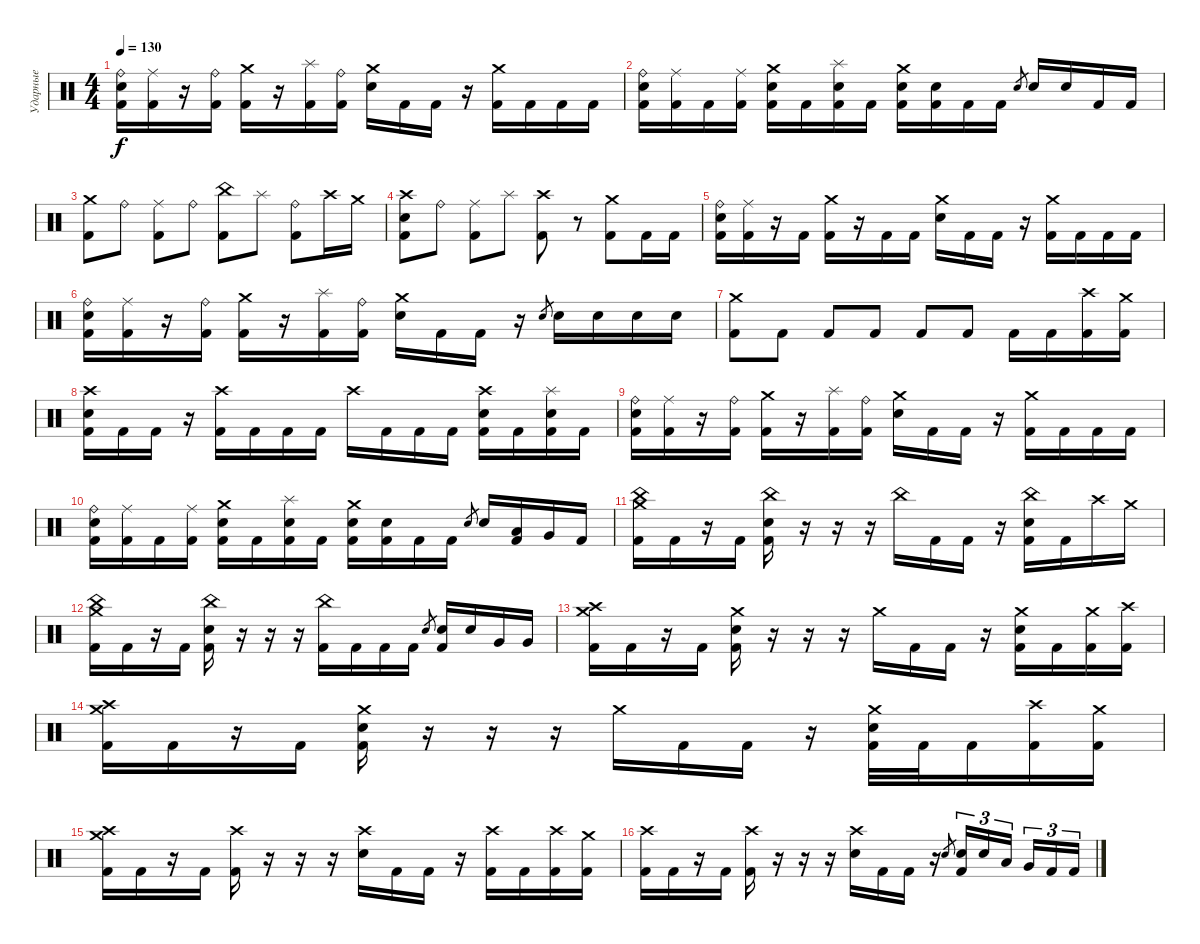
\track ("Ударные" "Ударные") {instrument percussion}
\staff {score}
\articulation defaults
\ts (4 4)
\tempo 130
\clef neutral
\ks c
("Ride (bell)" "Electric Snare (hit)" "Kick (hit) 2").16{dy f} ("Ride (middle)" "Kick (hit) 2").16 r.16 ("Ride (bell)" "Kick (hit) 2").16 ("Crash medium (hit)" "Kick (hit) 2").16 r.16 ("Splash (hit)" "Kick (hit) 2").16 ("Ride (bell)" "Kick (hit) 2").16 ("Crash medium (hit)" "Electric Snare (hit)").16 "Kick (hit) 2".16 "Kick (hit) 2".16 r.16 ("Crash medium (hit)" "Kick (hit) 2").16 "Kick (hit) 2".16 "Kick (hit) 2".16 "Kick (hit) 2".16 |
("Ride (bell)" "Electric Snare (hit)" "Kick (hit) 2").16 ("Ride (middle)" "Kick (hit) 2").16 "Kick (hit) 2".16 ("Ride (middle)" "Kick (hit) 2").16 ("Crash medium (hit)" "Electric Snare (hit)" "Kick (hit) 2").16 "Kick (hit) 2".16 ("Splash (hit)" "Electric Snare (hit)" "Kick (hit) 2").16 "Kick (hit) 2".16 ("Crash medium (hit)" "Electric Snare (hit)" "Kick (hit) 2").16 ("Electric Snare (hit)" "Kick (hit) 2").16 "Kick (hit) 2".16 "Kick (hit) 2".16 "Electric Snare (hit)".8{gr} "Electric Snare (hit)".16 "Electric Snare (hit)".16 "Kick (hit) 2".16 "Kick (hit) 2".16 |
("Crash medium (hit)" "Kick (hit) 2").8 "Ride (bell)".8 ("Ride (middle)" "Kick (hit) 2").8 "Ride (bell)".8 ("China (hit)" "Kick (hit) 2").8 "Splash (hit)".8 ("Ride (bell)" "Kick (hit) 2").8 "Crash high (hit)".16 "Crash medium (hit)".16 |
("Crash high (hit)" "Electric Snare (hit)" "Kick (hit) 2").8 "Ride (bell)".8 ("Ride (middle)" "Kick (hit) 2").8 "Splash (hit)".8 ("Crash high (hit)" "Kick (hit) 2").8 r.8 ("Crash medium (hit)" "Kick (hit) 2").8 "Kick (hit) 2".16 "Kick (hit) 2".16 |
("Ride (bell)" "Electric Snare (hit)" "Kick (hit) 2").16 ("Ride (middle)" "Kick (hit) 2").16 r.16 "Kick (hit) 2".16 ("Crash medium (hit)" "Kick (hit) 2").16 r.16 "Kick (hit) 2".16 "Kick (hit) 2".16 ("Crash medium (hit)" "Electric Snare (hit)").16 "Kick (hit) 2".16 "Kick (hit) 2".16 r.16 ("Crash medium (hit)" "Kick (hit) 2").16 "Kick (hit) 2".16 "Kick (hit) 2".16 "Kick (hit) 2".16 |
("Ride (bell)" "Electric Snare (hit)" "Kick (hit) 2").16 ("Ride (middle)" "Kick (hit) 2").16 r.16 ("Ride (bell)" "Kick (hit) 2").16 ("Crash medium (hit)" "Kick (hit) 2").16 r.16 ("Splash (hit)" "Kick (hit) 2").16 ("Ride (bell)" "Kick (hit) 2").16 ("Crash medium (hit)" "Electric Snare (hit)").16 "Kick (hit) 2".16 "Kick (hit) 2".16 r.16 "Electric Snare (hit)".8{gr} "Electric Snare (hit)".16 "Electric Snare (hit)".16 "Electric Snare (hit)".16 "Electric Snare (hit)".16 |
("Crash medium (hit)" "Kick (hit) 2").8 "Kick (hit) 2".8 "Kick (hit) 2".8 "Kick (hit) 2".8 "Kick (hit) 2".8 "Kick (hit) 2".8 "Kick (hit) 2".16 "Kick (hit) 2".16 ("Crash high (hit)" "Kick (hit) 2").16 ("Crash medium (hit)" "Kick (hit) 2").16 |
("Crash high (hit)" "Electric Snare (hit)" "Kick (hit) 2").16 "Kick (hit) 2".16 "Kick (hit) 2".16 r.16 ("Crash high (hit)" "Kick (hit) 2").16 "Kick (hit) 2".16 "Kick (hit) 2".16 "Kick (hit) 2".16 "Crash high (hit)".16 "Kick (hit) 2".16 "Kick (hit) 2".16 "Kick (hit) 2".16 ("Crash high (hit)" "Electric Snare (hit)" "Kick (hit) 2").16 "Kick (hit) 2".16 ("Splash (hit)" "Electric Snare (hit)" "Kick (hit) 2").16 "Kick (hit) 2".16 |
("Ride (bell)" "Electric Snare (hit)" "Kick (hit) 2").16 ("Ride (middle)" "Kick (hit) 2").16 r.16 ("Ride (bell)" "Kick (hit) 2").16 ("Crash medium (hit)" "Kick (hit) 2").16 r.16 ("Splash (hit)" "Kick (hit) 2").16 ("Ride (bell)" "Kick (hit) 2").16 ("Crash medium (hit)" "Electric Snare (hit)").16 "Kick (hit) 2".16 "Kick (hit) 2".16 r.16 ("Crash medium (hit)" "Kick (hit) 2").16 "Kick (hit) 2".16 "Kick (hit) 2".16 "Kick (hit) 2".16 |
("Ride (bell)" "Electric Snare (hit)" "Kick (hit) 2").16 ("Ride (middle)" "Kick (hit) 2").16 "Kick (hit) 2".16 ("Ride (middle)" "Kick (hit) 2").16 ("Crash medium (hit)" "Electric Snare (hit)" "Kick (hit) 2").16 "Kick (hit) 2".16 ("Splash (hit)" "Electric Snare (hit)" "Kick (hit) 2").16 "Kick (hit) 2".16 ("Crash medium (hit)" "Electric Snare (hit)" "Kick (hit) 2").16 ("Electric Snare (hit)" "Kick (hit) 2").16 "Kick (hit) 2".16 "Kick (hit) 2".16 "Electric Snare (hit)".8{gr} "Electric Snare (hit)".16 ("Low Tom (hit)" "Kick (hit) 2").16 "Very Low Tom (hit)".16 "Kick (hit) 2".16 |
("China (hit)" "Crash medium (hit)" "Kick (hit) 2").16 "Kick (hit) 2".16 r.16 "Kick (hit) 2".16 ("China (hit)" "Electric Snare (hit)" "Kick (hit) 2").16 r.16 r.16 r.16 "China (hit)".16 "Kick (hit) 2".16 "Kick (hit) 2".16 r.16 ("China (hit)" "Electric Snare (hit)" "Kick (hit) 2").16 "Kick (hit) 2".16 "Crash high (hit)".16 "Crash medium (hit)".16 |
("China (hit)" "Crash medium (hit)" "Kick (hit) 2").16 "Kick (hit) 2".16 r.16 "Kick (hit) 2".16 ("China (hit)" "Electric Snare (hit)" "Kick (hit) 2").16 r.16 r.16 r.16 ("China (hit)" "Kick (hit) 2").16 "Kick (hit) 2".16 "Kick (hit) 2".16 "Kick (hit) 2".16 "Electric Snare (hit)".8{gr} ("Electric Snare (hit)" "Kick (hit) 2").16 "Electric Snare (hit)".16 "Very Low Tom (hit)".16 "Very Low Tom (hit)".16 |
("Crash medium (hit)" "Crash high (hit)" "Kick (hit) 2").16 "Kick (hit) 2".16 r.16 "Kick (hit) 2".16 ("Crash medium (hit)" "Electric Snare (hit)" "Kick (hit) 2").16 r.16 r.16 r.16 "Crash medium (hit)".16 "Kick (hit) 2".16 "Kick (hit) 2".16 r.16 ("Crash medium (hit)" "Electric Snare (hit)" "Kick (hit) 2").16 "Kick (hit) 2".16 ("Crash medium (hit)" "Kick (hit) 2").16 ("Crash high (hit)" "Kick (hit) 2").16 |
("Crash medium (hit)" "Crash high (hit)" "Kick (hit) 2").16 "Kick (hit) 2".16 r.16 "Kick (hit) 2".16 ("Crash medium (hit)" "Electric Snare (hit)" "Kick (hit) 2").16 r.16 r.16 r.16 "Crash medium (hit)".16 "Kick (hit) 2".16 "Kick (hit) 2".16 r.16 ("Crash medium (hit)" "Electric Snare (hit)" "Kick (hit) 2").32 "Kick (hit) 2".32 "Kick (hit) 2".16 ("Crash high (hit)" "Kick (hit) 2").16 ("Crash medium (hit)" "Kick (hit) 2").16 |
("Crash high (hit)" "Crash medium (hit)" "Kick (hit) 2").16 "Kick (hit) 2".16 r.16 "Kick (hit) 2".16 ("Crash high (hit)" "Kick (hit) 2").16 r.16 r.16 r.16 ("Crash high (hit)" "Electric Snare (hit)").16 "Kick (hit) 2".16 "Kick (hit) 2".16 r.16 ("Crash high (hit)" "Kick (hit) 2").16 "Kick (hit) 2".16 ("Crash high (hit)" "Kick (hit) 2").16 ("Crash medium (hit)" "Kick (hit) 2").16 |
("Crash high (hit)" "Kick (hit) 2").16 "Kick (hit) 2".16 r.16 "Kick (hit) 2".16 ("Crash high (hit)" "Kick (hit) 2").16 r.16 r.16 r.16 ("Crash high (hit)" "Electric Snare (hit)").16 "Kick (hit) 2".16 "Kick (hit) 2".16 r.16 "Electric Snare (hit)".8{gr} ("Electric Snare (hit)" "Kick (hit) 2").16{tu (3 2)} "Electric Snare (hit)".16{tu (3 2)} "Low Tom (hit)".16{tu (3 2) beam splitsecondary} "Very Low Tom (hit)".16{tu (3 2)} "Kick (hit) 2".16{tu (3 2)} "Kick (hit) 2".16{tu (3 2)}
